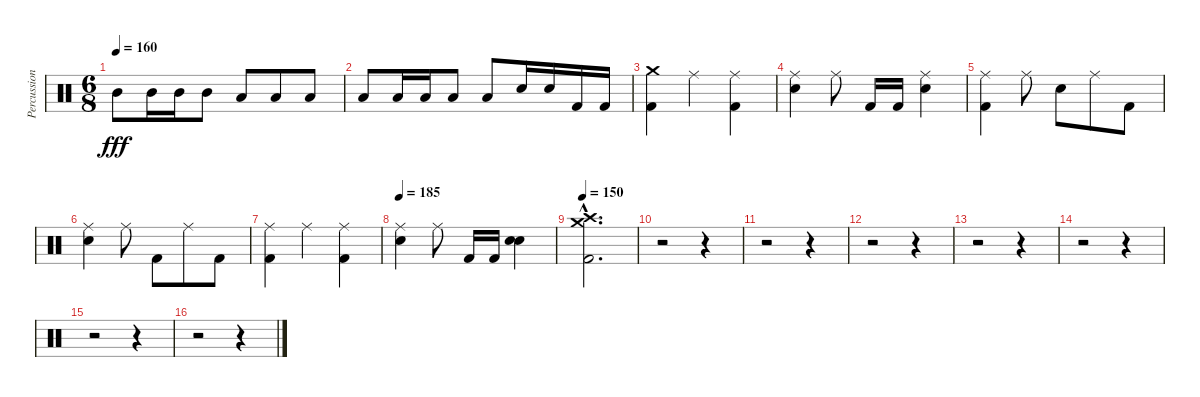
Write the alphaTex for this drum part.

\track ("Percussion" "Percussion") {instrument percussion}
\staff {score}
\articulation defaults
\ts (6 8)
\tempo 160
\clef neutral
\ks c "Mid Tom (hit)".8{dy fff} "Mid Tom (hit)".16 "Mid Tom (hit)".16 "Mid Tom (hit)".8 "Low Tom (hit)".8 "Low Tom (hit)".8 "Low Tom (hit)".8
|
"Low Tom (hit)".8 "Low Tom (hit)".16 "Low Tom (hit)".16 "Low Tom (hit)".8 "Low Floor Tom (hit)".8 "Snare (hit) 2".16 "Snare (hit) 2".16 "Kick (hit) 2".16 "Kick (hit) 2".16 |
("Crash medium (hit)" "Kick (hit) 2").4 "Ride (middle)".4 ("Ride (middle)" "Kick (hit) 2").4 |
("Ride (middle)" "Snare (hit) 2").4 "Ride (middle)".8 "Kick (hit) 2".16 "Kick (hit) 2".16 ("Ride (middle)" "Snare (hit) 2").4 |
("Ride (middle)" "Kick (hit) 2").4 "Ride (middle)".8 "Snare (hit) 2".8 "Ride (middle)".8 "Kick (hit) 2".8 |
("Ride (middle)" "Snare (hit) 2").4 "Ride (middle)".8 "Kick (hit) 2".8 "Ride (middle)".8 "Kick (hit) 2".8 |
("Ride (middle)" "Kick (hit) 2").4 "Ride (middle)".4 ("Ride (middle)" "Kick (hit) 2").4 |
\tempo 185
("Ride (middle)" "Snare (hit) 2").4 "Ride (middle)".8 "Kick (hit) 2".16 "Kick (hit) 2".16 ("Snare (hit) 2" "Snare (hit) 2").4 |
\tempo 150
("Crash medium (hit)"{hac} "Crash high (hit)"{hac} "Kick (hit) 2"{hac}).2{d} |
r.2 r.4 |
r.2 r.4 |
r.2 r.4 |
r.2 r.4 |
r.2 r.4 |
r.2 r.4 |
r.2 r.4
